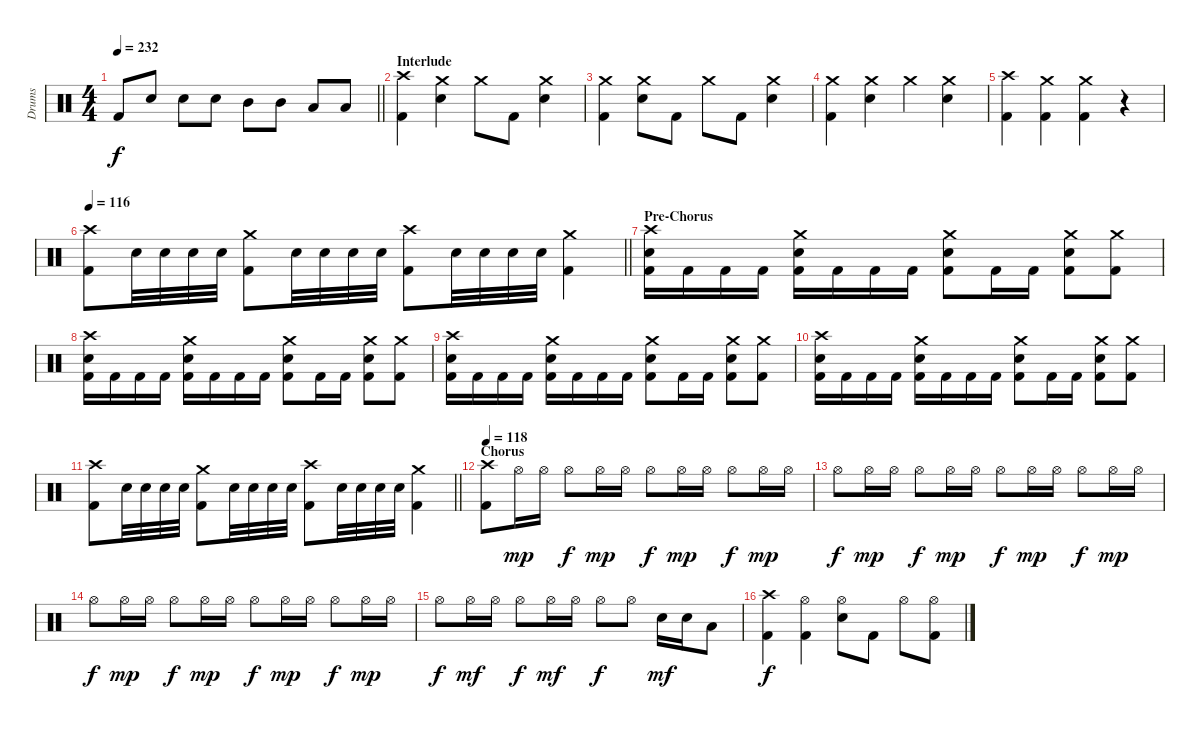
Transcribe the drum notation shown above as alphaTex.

\track ("Drums" "Drums") {instrument percussion}
\staff {score}
\articulation defaults
\ts (4 4)
\tempo 232
\clef neutral
\barLineRight lightlight
\ks c "Kick (hit) 2".8{dy f} "Snare (hit) 2".8 "Snare (hit) 2".8 "Snare (hit) 2".8 "Mid Tom (hit)".8 "Mid Tom (hit)".8 "Low Tom (hit)".8 "Low Tom (hit)".8
|
\section ("" "Interlude")
("Crash high (hit)" "Kick (hit) 2").4 ("Crash medium (hit)" "Snare (hit) 2").4 "Crash medium (hit)".8 "Kick (hit) 2".8 ("Crash medium (hit)" "Snare (hit) 2").4 |
("Crash medium (hit)" "Kick (hit) 2").4 ("Crash medium (hit)" "Snare (hit) 2").8 "Kick (hit) 2".8 "Crash medium (hit)".8 "Kick (hit) 2".8 ("Crash medium (hit)" "Snare (hit) 2").4 |
("Crash medium (hit)" "Kick (hit) 2").4 ("Crash medium (hit)" "Snare (hit) 2").4 "Crash medium (hit)".4 ("Crash medium (hit)" "Snare (hit) 2").4 |
("Crash high (hit)" "Kick (hit) 2").4 ("Crash medium (hit)" "Kick (hit) 2").4 ("Crash medium (hit)" "Kick (hit) 2").4 r.4 |
\tempo 116
\barLineRight lightlight
("Crash high (hit)" "Kick (hit) 2").8 "Snare (hit) 2".32 "Snare (hit) 2".32 "Snare (hit) 2".32 "Snare (hit) 2".32 ("Crash medium (hit)" "Kick (hit) 2").8 "Snare (hit) 2".32 "Snare (hit) 2".32 "Snare (hit) 2".32 "Snare (hit) 2".32 ("Crash high (hit)" "Kick (hit) 2").8 "Snare (hit) 2".32 "Snare (hit) 2".32 "Snare (hit) 2".32 "Snare (hit) 2".32 ("Crash medium (hit)" "Kick (hit) 2").4 |
\section ("" "Pre-Chorus")
("Crash high (hit)" "Snare (hit) 2" "Kick (hit) 2").16 "Kick (hit) 2".16 "Kick (hit) 2".16 "Kick (hit) 2".16 ("Crash medium (hit)" "Snare (hit) 2" "Kick (hit) 2").16 "Kick (hit) 2".16 "Kick (hit) 2".16 "Kick (hit) 2".16 ("Crash medium (hit)" "Snare (hit) 2" "Kick (hit) 2").8 "Kick (hit) 2".16 "Kick (hit) 2".16 ("Crash medium (hit)" "Snare (hit) 2" "Kick (hit) 2").8 ("Crash medium (hit)" "Kick (hit) 2").8 |
("Crash high (hit)" "Snare (hit) 2" "Kick (hit) 2").16 "Kick (hit) 2".16 "Kick (hit) 2".16 "Kick (hit) 2".16 ("Crash medium (hit)" "Snare (hit) 2" "Kick (hit) 2").16 "Kick (hit) 2".16 "Kick (hit) 2".16 "Kick (hit) 2".16 ("Crash medium (hit)" "Snare (hit) 2" "Kick (hit) 2").8 "Kick (hit) 2".16 "Kick (hit) 2".16 ("Crash medium (hit)" "Snare (hit) 2" "Kick (hit) 2").8 ("Crash medium (hit)" "Kick (hit) 2").8 |
("Crash high (hit)" "Snare (hit) 2" "Kick (hit) 2").16 "Kick (hit) 2".16 "Kick (hit) 2".16 "Kick (hit) 2".16 ("Crash medium (hit)" "Snare (hit) 2" "Kick (hit) 2").16 "Kick (hit) 2".16 "Kick (hit) 2".16 "Kick (hit) 2".16 ("Crash medium (hit)" "Snare (hit) 2" "Kick (hit) 2").8 "Kick (hit) 2".16 "Kick (hit) 2".16 ("Crash medium (hit)" "Snare (hit) 2" "Kick (hit) 2").8 ("Crash medium (hit)" "Kick (hit) 2").8 |
("Crash high (hit)" "Snare (hit) 2" "Kick (hit) 2").16 "Kick (hit) 2".16 "Kick (hit) 2".16 "Kick (hit) 2".16 ("Crash medium (hit)" "Snare (hit) 2" "Kick (hit) 2").16 "Kick (hit) 2".16 "Kick (hit) 2".16 "Kick (hit) 2".16 ("Crash medium (hit)" "Snare (hit) 2" "Kick (hit) 2").8 "Kick (hit) 2".16 "Kick (hit) 2".16 ("Crash medium (hit)" "Snare (hit) 2" "Kick (hit) 2").8 ("Crash medium (hit)" "Kick (hit) 2").8 |
\barLineRight lightlight
("Crash high (hit)" "Kick (hit) 2").8 "Snare (hit) 2".32 "Snare (hit) 2".32 "Snare (hit) 2".32 "Snare (hit) 2".32 ("Crash medium (hit)" "Kick (hit) 2").8 "Snare (hit) 2".32 "Snare (hit) 2".32 "Snare (hit) 2".32 "Snare (hit) 2".32 ("Crash high (hit)" "Kick (hit) 2").8 "Snare (hit) 2".32 "Snare (hit) 2".32 "Snare (hit) 2".32 "Snare (hit) 2".32 ("Crash medium (hit)" "Kick (hit) 2").4 |
\section ("" "Chorus")
\tempo 118
("Crash high (hit)" "Kick (hit) 2").8 "Hi-Hat (open)".16{dy mp} "Hi-Hat (open)".16 "Hi-Hat (open)".8{dy f} "Hi-Hat (open)".16{dy mp} "Hi-Hat (open)".16 "Hi-Hat (open)".8{dy f} "Hi-Hat (open)".16{dy mp} "Hi-Hat (open)".16 "Hi-Hat (open)".8{dy f} "Hi-Hat (open)".16{dy mp} "Hi-Hat (open)".16 |
"Hi-Hat (open)".8{dy f} "Hi-Hat (open)".16{dy mp} "Hi-Hat (open)".16 "Hi-Hat (open)".8{dy f} "Hi-Hat (open)".16{dy mp} "Hi-Hat (open)".16 "Hi-Hat (open)".8{dy f} "Hi-Hat (open)".16{dy mp} "Hi-Hat (open)".16 "Hi-Hat (open)".8{dy f} "Hi-Hat (open)".16{dy mp} "Hi-Hat (open)".16 |
"Hi-Hat (open)".8{dy f} "Hi-Hat (open)".16{dy mp} "Hi-Hat (open)".16 "Hi-Hat (open)".8{dy f} "Hi-Hat (open)".16{dy mp} "Hi-Hat (open)".16 "Hi-Hat (open)".8{dy f} "Hi-Hat (open)".16{dy mp} "Hi-Hat (open)".16 "Hi-Hat (open)".8{dy f} "Hi-Hat (open)".16{dy mp} "Hi-Hat (open)".16 |
"Hi-Hat (open)".8{dy f} "Hi-Hat (open)".16{dy mf} "Hi-Hat (open)".16 "Hi-Hat (open)".8{dy f} "Hi-Hat (open)".16{dy mf} "Hi-Hat (open)".16 "Hi-Hat (open)".8{dy f} "Hi-Hat (open)".8 "Snare (hit) 2".16{dy mf} "Snare (hit) 2".16 "Low Tom (hit)".8 |
("Crash high (hit)" "Kick (hit) 2").4{dy f} ("Hi-Hat (open)" "Kick (hit) 2").4 ("Hi-Hat (open)" "Snare (hit) 2").8 "Kick (hit) 2".8 "Hi-Hat (open)".8 ("Hi-Hat (open)" "Kick (hit) 2").8
